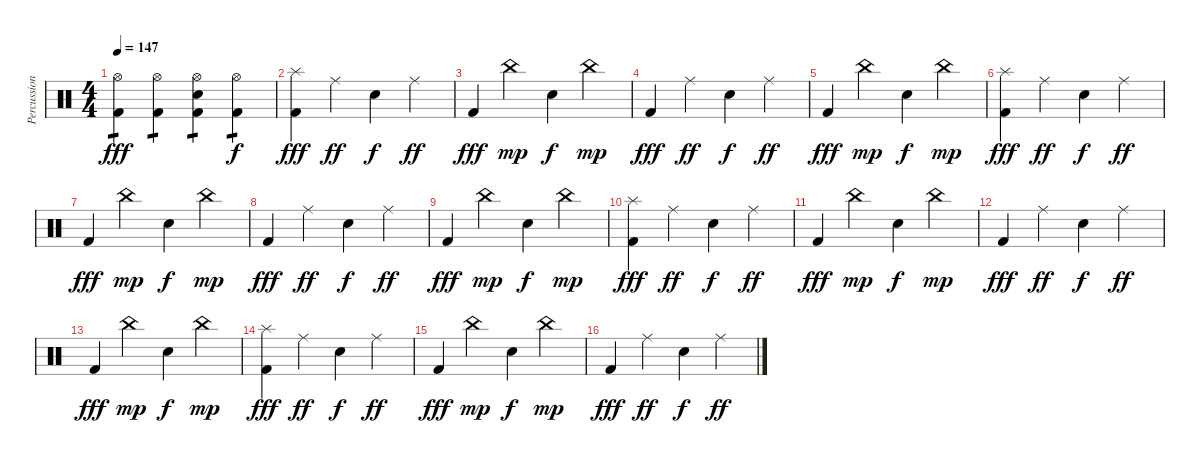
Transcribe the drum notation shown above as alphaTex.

\track ("Percussion" "Percussion") {instrument percussion}
\staff
\articulation defaults
\ts (4 4)
\tempo 147
\clef neutral
\ks c
("Hi-Hat (open)" "Kick (hit) 2").4{tp 1 dy fff} ("Hi-Hat (open)" "Kick (hit) 2").4{tp 1} ("Hi-Hat (open)" "Electric Snare (hit)" "Kick (hit) 2").4{tp 1} ("Hi-Hat (open)" "Kick (hit) 2").4{tp 1 dy f} |
("Splash (hit)" "Kick (hit) 2").4{dy fff} "Ride (middle)".4{dy ff} "Electric Snare (hit)".4{dy f} "Ride (middle)".4{dy ff} |
"Kick (hit) 2".4{dy fff} "China (hit)".4{dy mp} "Electric Snare (hit)".4{dy f} "China (hit)".4{dy mp} |
"Kick (hit) 2".4{dy fff} "Ride (middle)".4{dy ff} "Electric Snare (hit)".4{dy f} "Ride (middle)".4{dy ff} |
"Kick (hit) 2".4{dy fff} "China (hit)".4{dy mp} "Electric Snare (hit)".4{dy f} "China (hit)".4{dy mp} |
("Splash (hit)" "Kick (hit) 2").4{dy fff} "Ride (middle)".4{dy ff} "Electric Snare (hit)".4{dy f} "Ride (middle)".4{dy ff} |
"Kick (hit) 2".4{dy fff} "China (hit)".4{dy mp} "Electric Snare (hit)".4{dy f} "China (hit)".4{dy mp} |
"Kick (hit) 2".4{dy fff} "Ride (middle)".4{dy ff} "Electric Snare (hit)".4{dy f} "Ride (middle)".4{dy ff} |
"Kick (hit) 2".4{dy fff} "China (hit)".4{dy mp} "Electric Snare (hit)".4{dy f} "China (hit)".4{dy mp} |
("Splash (hit)" "Kick (hit) 2").4{dy fff} "Ride (middle)".4{dy ff} "Electric Snare (hit)".4{dy f} "Ride (middle)".4{dy ff} |
"Kick (hit) 2".4{dy fff} "China (hit)".4{dy mp} "Electric Snare (hit)".4{dy f} "China (hit)".4{dy mp} |
"Kick (hit) 2".4{dy fff} "Ride (middle)".4{dy ff} "Electric Snare (hit)".4{dy f} "Ride (middle)".4{dy ff} |
"Kick (hit) 2".4{dy fff} "China (hit)".4{dy mp} "Electric Snare (hit)".4{dy f} "China (hit)".4{dy mp} |
("Splash (hit)" "Kick (hit) 2").4{dy fff} "Ride (middle)".4{dy ff} "Electric Snare (hit)".4{dy f} "Ride (middle)".4{dy ff} |
"Kick (hit) 2".4{dy fff} "China (hit)".4{dy mp} "Electric Snare (hit)".4{dy f} "China (hit)".4{dy mp} |
"Kick (hit) 2".4{dy fff} "Ride (middle)".4{dy ff} "Electric Snare (hit)".4{dy f} "Ride (middle)".4{dy ff}
